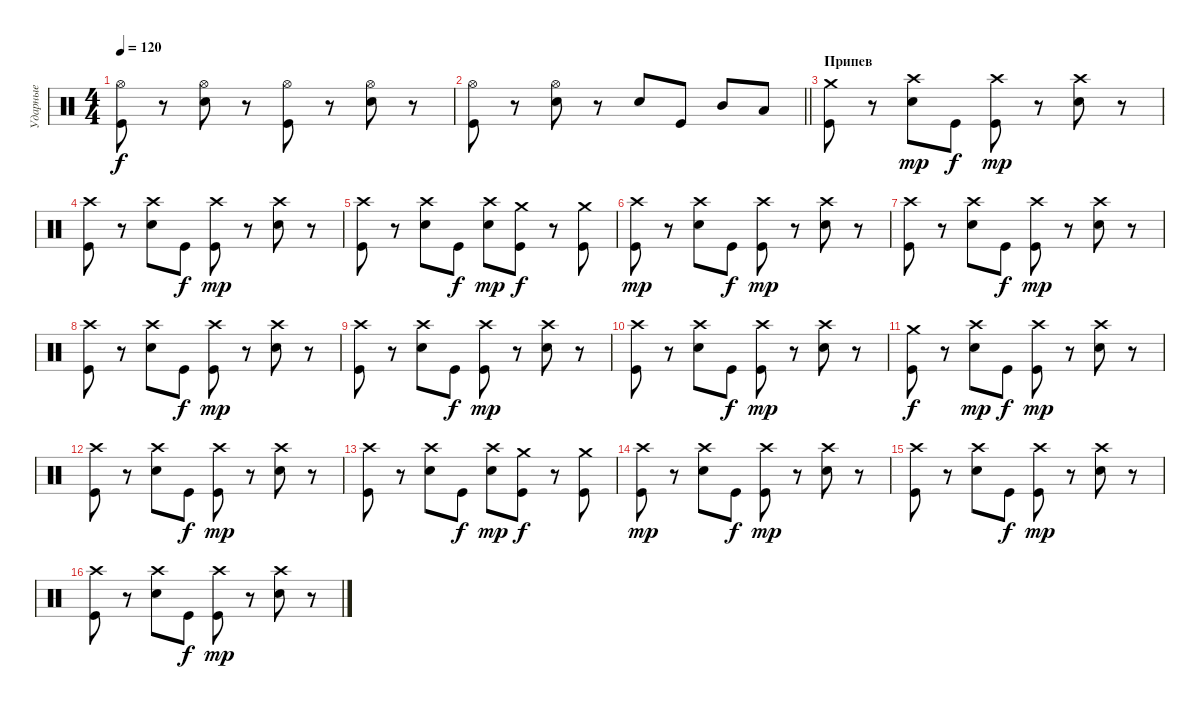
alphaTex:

\track ("Ударные" "Ударные") {instrument percussion}
\staff {score}
\articulation defaults
\ts (4 4)
\tempo 120
\clef neutral
\ks c
("Hi-Hat (open)" "Kick (hit)").8{dy f} r.8 ("Hi-Hat (open)" "Electric Snare (hit)").8 r.8 ("Hi-Hat (open)" "Kick (hit)").8 r.8 ("Hi-Hat (open)" "Electric Snare (hit)").8 r.8 |
\barLineRight lightlight
("Hi-Hat (open)" "Kick (hit)").8 r.8 ("Hi-Hat (open)" "Electric Snare (hit)").8 r.8 "Electric Snare (hit)".8 "Kick (hit)".8 "Mid Tom (hit)".8 "Low Tom (hit)".8 |
\section ("" "Припев")
("Crash medium (hit)" "Kick (hit)").8 r.8 ("Crash high (hit)" "Electric Snare (hit)").8{dy mp} "Kick (hit)".8{dy f} ("Crash high (hit)" "Kick (hit)").8{dy mp} r.8 ("Crash high (hit)" "Electric Snare (hit)").8 r.8 |
("Crash high (hit)" "Kick (hit)").8 r.8 ("Crash high (hit)" "Electric Snare (hit)").8 "Kick (hit)".8{dy f} ("Crash high (hit)" "Kick (hit)").8{dy mp} r.8 ("Crash high (hit)" "Electric Snare (hit)").8 r.8 |
("Crash high (hit)" "Kick (hit)").8 r.8 ("Crash high (hit)" "Electric Snare (hit)").8 "Kick (hit)".8{dy f} ("Crash high (hit)" "Electric Snare (hit)").8{dy mp} ("Crash medium (hit)" "Kick (hit)").8{dy f} r.8 ("Crash medium (hit)" "Kick (hit)").8 |
("Crash high (hit)" "Kick (hit)").8{dy mp} r.8 ("Crash high (hit)" "Electric Snare (hit)").8 "Kick (hit)".8{dy f} ("Crash high (hit)" "Kick (hit)").8{dy mp} r.8 ("Crash high (hit)" "Electric Snare (hit)").8 r.8 |
("Crash high (hit)" "Kick (hit)").8 r.8 ("Crash high (hit)" "Electric Snare (hit)").8 "Kick (hit)".8{dy f} ("Crash high (hit)" "Kick (hit)").8{dy mp} r.8 ("Crash high (hit)" "Electric Snare (hit)").8 r.8 |
("Crash high (hit)" "Kick (hit)").8 r.8 ("Crash high (hit)" "Electric Snare (hit)").8 "Kick (hit)".8{dy f} ("Crash high (hit)" "Kick (hit)").8{dy mp} r.8 ("Crash high (hit)" "Electric Snare (hit)").8 r.8 |
("Crash high (hit)" "Kick (hit)").8 r.8 ("Crash high (hit)" "Electric Snare (hit)").8 "Kick (hit)".8{dy f} ("Crash high (hit)" "Kick (hit)").8{dy mp} r.8 ("Crash high (hit)" "Electric Snare (hit)").8 r.8 |
("Crash high (hit)" "Kick (hit)").8 r.8 ("Crash high (hit)" "Electric Snare (hit)").8 "Kick (hit)".8{dy f} ("Crash high (hit)" "Kick (hit)").8{dy mp} r.8 ("Crash high (hit)" "Electric Snare (hit)").8 r.8 |
("Crash medium (hit)" "Kick (hit)").8{dy f} r.8 ("Crash high (hit)" "Electric Snare (hit)").8{dy mp} "Kick (hit)".8{dy f} ("Crash high (hit)" "Kick (hit)").8{dy mp} r.8 ("Crash high (hit)" "Electric Snare (hit)").8 r.8 |
("Crash high (hit)" "Kick (hit)").8 r.8 ("Crash high (hit)" "Electric Snare (hit)").8 "Kick (hit)".8{dy f} ("Crash high (hit)" "Kick (hit)").8{dy mp} r.8 ("Crash high (hit)" "Electric Snare (hit)").8 r.8 |
("Crash high (hit)" "Kick (hit)").8 r.8 ("Crash high (hit)" "Electric Snare (hit)").8 "Kick (hit)".8{dy f} ("Crash high (hit)" "Electric Snare (hit)").8{dy mp} ("Crash medium (hit)" "Kick (hit)").8{dy f} r.8 ("Crash medium (hit)" "Kick (hit)").8 |
("Crash high (hit)" "Kick (hit)").8{dy mp} r.8 ("Crash high (hit)" "Electric Snare (hit)").8 "Kick (hit)".8{dy f} ("Crash high (hit)" "Kick (hit)").8{dy mp} r.8 ("Crash high (hit)" "Electric Snare (hit)").8 r.8 |
("Crash high (hit)" "Kick (hit)").8 r.8 ("Crash high (hit)" "Electric Snare (hit)").8 "Kick (hit)".8{dy f} ("Crash high (hit)" "Kick (hit)").8{dy mp} r.8 ("Crash high (hit)" "Electric Snare (hit)").8 r.8 |
("Crash high (hit)" "Kick (hit)").8 r.8 ("Crash high (hit)" "Electric Snare (hit)").8 "Kick (hit)".8{dy f} ("Crash high (hit)" "Kick (hit)").8{dy mp} r.8 ("Crash high (hit)" "Electric Snare (hit)").8 r.8
